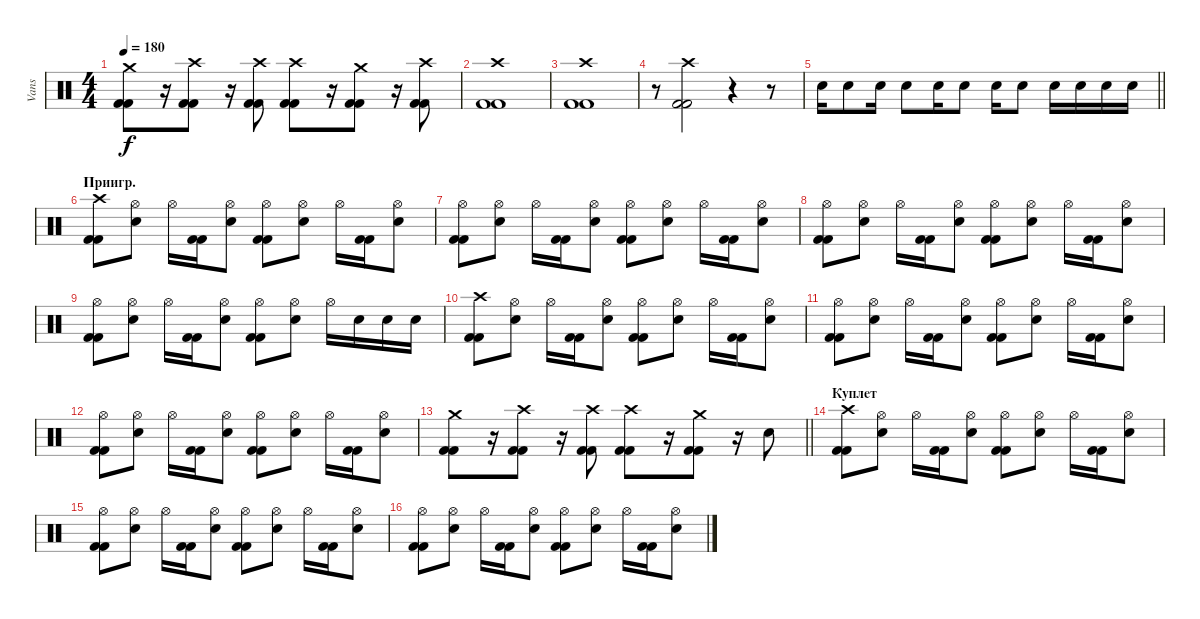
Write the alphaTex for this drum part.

\track ("Vans" "Vans") {instrument percussion}
\staff {score}
\articulation defaults
\ts (4 4)
\tempo 180
\clef neutral
\ks c
("Crash medium (hit)" "Kick (hit) 2" "Kick (hit) 2").8{dy f} r.16 ("Crash high (hit)" "Kick (hit) 2" "Kick (hit) 2").8 r.16 ("Crash high (hit)" "Kick (hit) 2" "Kick (hit) 2").8 ("Crash high (hit)" "Kick (hit) 2" "Kick (hit) 2").8 r.16 ("Crash medium (hit)" "Kick (hit) 2" "Kick (hit) 2").8 r.16 ("Crash high (hit)" "Kick (hit) 2" "Kick (hit) 2").8 |
("Crash high (hit)" "Kick (hit) 2" "Kick (hit) 2").1 |
("Crash high (hit)" "Kick (hit) 2" "Kick (hit) 2").1 |
r.8 ("Crash high (hit)" "Kick (hit) 2" "Kick (hit) 2").2 r.4 r.8 |
\barLineRight lightlight "Snare (hit) 2".16 "Snare (hit) 2".8 "Snare (hit) 2".16 "Snare (hit) 2".8 "Snare (hit) 2".16 "Snare (hit) 2".8 "Snare (hit) 2".16 "Snare (hit) 2".8 "Snare (hit) 2".16 "Snare (hit) 2".16 "Snare (hit) 2".16 "Snare (hit) 2".16
|
\section ("" "Приигр.")
("Crash high (hit)" "Kick (hit) 2" "Kick (hit) 2").8 ("Hi-Hat (open)" "Snare (hit) 2").8 "Hi-Hat (open)".16 ("Kick (hit) 2" "Kick (hit) 2").16 ("Hi-Hat (open)" "Snare (hit) 2").8 ("Hi-Hat (open)" "Kick (hit) 2" "Kick (hit) 2").8 ("Hi-Hat (open)" "Snare (hit) 2").8 "Hi-Hat (open)".16 ("Kick (hit) 2" "Kick (hit) 2").16 ("Hi-Hat (open)" "Snare (hit) 2").8 |
("Hi-Hat (open)" "Kick (hit) 2" "Kick (hit) 2").8 ("Hi-Hat (open)" "Snare (hit) 2").8 "Hi-Hat (open)".16 ("Kick (hit) 2" "Kick (hit) 2").16 ("Hi-Hat (open)" "Snare (hit) 2").8 ("Hi-Hat (open)" "Kick (hit) 2" "Kick (hit) 2").8 ("Hi-Hat (open)" "Snare (hit) 2").8 "Hi-Hat (open)".16 ("Kick (hit) 2" "Kick (hit) 2").16 ("Hi-Hat (open)" "Snare (hit) 2").8 |
("Hi-Hat (open)" "Kick (hit) 2" "Kick (hit) 2").8 ("Hi-Hat (open)" "Snare (hit) 2").8 "Hi-Hat (open)".16 ("Kick (hit) 2" "Kick (hit) 2").16 ("Hi-Hat (open)" "Snare (hit) 2").8 ("Hi-Hat (open)" "Kick (hit) 2" "Kick (hit) 2").8 ("Hi-Hat (open)" "Snare (hit) 2").8 "Hi-Hat (open)".16 ("Kick (hit) 2" "Kick (hit) 2").16 ("Hi-Hat (open)" "Snare (hit) 2").8 |
("Hi-Hat (open)" "Kick (hit) 2" "Kick (hit) 2").8 ("Hi-Hat (open)" "Snare (hit) 2").8 "Hi-Hat (open)".16 ("Kick (hit) 2" "Kick (hit) 2").16 ("Hi-Hat (open)" "Snare (hit) 2").8 ("Hi-Hat (open)" "Kick (hit) 2" "Kick (hit) 2").8 ("Hi-Hat (open)" "Snare (hit) 2").8 "Hi-Hat (open)".16 "Snare (hit) 2".16 "Snare (hit) 2".16 "Snare (hit) 2".16 |
("Crash high (hit)" "Kick (hit) 2" "Kick (hit) 2").8 ("Hi-Hat (open)" "Snare (hit) 2").8 "Hi-Hat (open)".16 ("Kick (hit) 2" "Kick (hit) 2").16 ("Hi-Hat (open)" "Snare (hit) 2").8 ("Hi-Hat (open)" "Kick (hit) 2" "Kick (hit) 2").8 ("Hi-Hat (open)" "Snare (hit) 2").8 "Hi-Hat (open)".16 ("Kick (hit) 2" "Kick (hit) 2").16 ("Hi-Hat (open)" "Snare (hit) 2").8 |
("Hi-Hat (open)" "Kick (hit) 2" "Kick (hit) 2").8 ("Hi-Hat (open)" "Snare (hit) 2").8 "Hi-Hat (open)".16 ("Kick (hit) 2" "Kick (hit) 2").16 ("Hi-Hat (open)" "Snare (hit) 2").8 ("Hi-Hat (open)" "Kick (hit) 2" "Kick (hit) 2").8 ("Hi-Hat (open)" "Snare (hit) 2").8 "Hi-Hat (open)".16 ("Kick (hit) 2" "Kick (hit) 2").16 ("Hi-Hat (open)" "Snare (hit) 2").8 |
("Hi-Hat (open)" "Kick (hit) 2" "Kick (hit) 2").8 ("Hi-Hat (open)" "Snare (hit) 2").8 "Hi-Hat (open)".16 ("Kick (hit) 2" "Kick (hit) 2").16 ("Hi-Hat (open)" "Snare (hit) 2").8 ("Hi-Hat (open)" "Kick (hit) 2" "Kick (hit) 2").8 ("Hi-Hat (open)" "Snare (hit) 2").8 "Hi-Hat (open)".16 ("Kick (hit) 2" "Kick (hit) 2").16 ("Hi-Hat (open)" "Snare (hit) 2").8 |
\barLineRight lightlight
("Crash medium (hit)" "Kick (hit) 2" "Kick (hit) 2").8 r.16 ("Crash high (hit)" "Kick (hit) 2" "Kick (hit) 2").8 r.16 ("Crash high (hit)" "Kick (hit) 2" "Kick (hit) 2").8 ("Crash high (hit)" "Kick (hit) 2" "Kick (hit) 2").8 r.16 ("Crash medium (hit)" "Kick (hit) 2" "Kick (hit) 2").8 r.16 "Snare (hit) 2".8 |
\section ("" "Куплет")
("Crash high (hit)" "Kick (hit) 2" "Kick (hit) 2").8 ("Hi-Hat (open)" "Snare (hit) 2").8 "Hi-Hat (open)".16 ("Kick (hit) 2" "Kick (hit) 2").16 ("Hi-Hat (open)" "Snare (hit) 2").8 ("Hi-Hat (open)" "Kick (hit) 2" "Kick (hit) 2").8 ("Hi-Hat (open)" "Snare (hit) 2").8 "Hi-Hat (open)".16 ("Kick (hit) 2" "Kick (hit) 2").16 ("Hi-Hat (open)" "Snare (hit) 2").8 |
("Hi-Hat (open)" "Kick (hit) 2" "Kick (hit) 2").8 ("Hi-Hat (open)" "Snare (hit) 2").8 "Hi-Hat (open)".16 ("Kick (hit) 2" "Kick (hit) 2").16 ("Hi-Hat (open)" "Snare (hit) 2").8 ("Hi-Hat (open)" "Kick (hit) 2" "Kick (hit) 2").8 ("Hi-Hat (open)" "Snare (hit) 2").8 "Hi-Hat (open)".16 ("Kick (hit) 2" "Kick (hit) 2").16 ("Hi-Hat (open)" "Snare (hit) 2").8 |
("Hi-Hat (open)" "Kick (hit) 2" "Kick (hit) 2").8 ("Hi-Hat (open)" "Snare (hit) 2").8 "Hi-Hat (open)".16 ("Kick (hit) 2" "Kick (hit) 2").16 ("Hi-Hat (open)" "Snare (hit) 2").8 ("Hi-Hat (open)" "Kick (hit) 2" "Kick (hit) 2").8 ("Hi-Hat (open)" "Snare (hit) 2").8 "Hi-Hat (open)".16 ("Kick (hit) 2" "Kick (hit) 2").16 ("Hi-Hat (open)" "Snare (hit) 2").8
